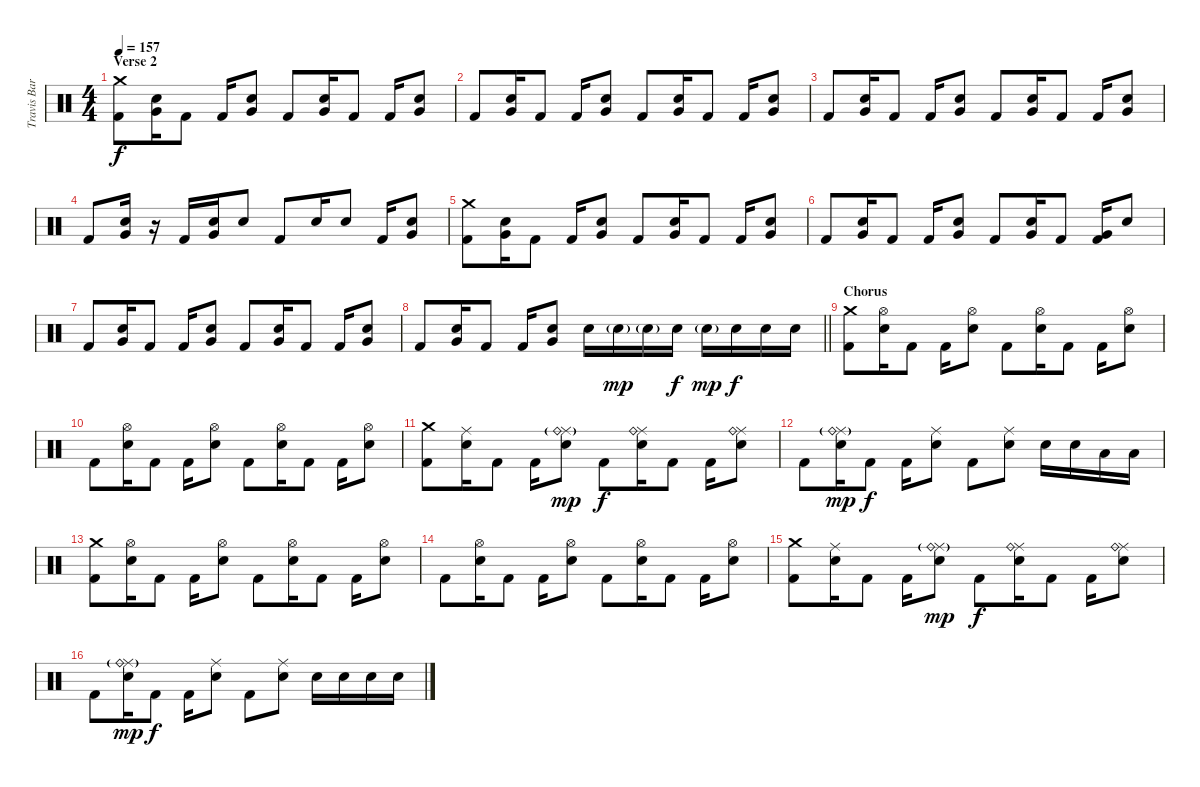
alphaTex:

\track ("Travis Barker - Drums" "Travis Bar") {instrument percussion}
\staff {score}
\articulation defaults
\ts (4 4)
\section ("" "Verse 2")
\tempo 157
\clef neutral
\ks c
("Crash medium (hit)" "Kick (hit) 2").8{dy f} ("Very Low Tom (hit)" "Electric Snare (hit)").16 "Kick (hit) 2".8 "Kick (hit) 2".16 ("Very Low Tom (hit)" "Electric Snare (hit)").8 "Kick (hit) 2".8 ("Very Low Tom (hit)" "Electric Snare (hit)").16 "Kick (hit) 2".8 "Kick (hit) 2".16 ("Very Low Tom (hit)" "Electric Snare (hit)").8 |
"Kick (hit) 2".8 ("Very Low Tom (hit)" "Electric Snare (hit)").16 "Kick (hit) 2".8 "Kick (hit) 2".16 ("Very Low Tom (hit)" "Electric Snare (hit)").8 "Kick (hit) 2".8 ("Very Low Tom (hit)" "Electric Snare (hit)").16 "Kick (hit) 2".8 "Kick (hit) 2".16 ("Very Low Tom (hit)" "Electric Snare (hit)").8 |
"Kick (hit) 2".8 ("Very Low Tom (hit)" "Electric Snare (hit)").16 "Kick (hit) 2".8 "Kick (hit) 2".16 ("Very Low Tom (hit)" "Electric Snare (hit)").8 "Kick (hit) 2".8 ("Very Low Tom (hit)" "Electric Snare (hit)").16 "Kick (hit) 2".8 "Kick (hit) 2".16 ("Very Low Tom (hit)" "Electric Snare (hit)").8 |
"Kick (hit) 2".8 ("Very Low Tom (hit)" "Electric Snare (hit)").16 r.16 "Kick (hit) 2".16 ("Very Low Tom (hit)" "Electric Snare (hit)").16 "Electric Snare (hit)".8 "Kick (hit) 2".8 "Electric Snare (hit)".16 "Electric Snare (hit)".8 "Kick (hit) 2".16 ("Very Low Tom (hit)" "Electric Snare (hit)").8 |
("Crash medium (hit)" "Kick (hit) 2").8 ("Very Low Tom (hit)" "Electric Snare (hit)").16 "Kick (hit) 2".8 "Kick (hit) 2".16 ("Very Low Tom (hit)" "Electric Snare (hit)").8 "Kick (hit) 2".8 ("Very Low Tom (hit)" "Electric Snare (hit)").16 "Kick (hit) 2".8 "Kick (hit) 2".16 ("Very Low Tom (hit)" "Electric Snare (hit)").8 |
"Kick (hit) 2".8 ("Very Low Tom (hit)" "Electric Snare (hit)").16 "Kick (hit) 2".8 "Kick (hit) 2".16 ("Very Low Tom (hit)" "Electric Snare (hit)").8 "Kick (hit) 2".8 ("Very Low Tom (hit)" "Electric Snare (hit)").16 "Kick (hit) 2".8 ("Very Low Tom (hit)" "Kick (hit) 2").16 "Electric Snare (hit)".8 |
"Kick (hit) 2".8 ("Very Low Tom (hit)" "Electric Snare (hit)").16 "Kick (hit) 2".8 "Kick (hit) 2".16 ("Very Low Tom (hit)" "Electric Snare (hit)").8 "Kick (hit) 2".8 ("Very Low Tom (hit)" "Electric Snare (hit)").16 "Kick (hit) 2".8 "Kick (hit) 2".16 ("Very Low Tom (hit)" "Electric Snare (hit)").8 |
\barLineRight lightlight "Kick (hit) 2".8
("Very Low Tom (hit)" "Electric Snare (hit)").16 "Kick (hit) 2".8 "Kick (hit) 2".16 ("Very Low Tom (hit)" "Electric Snare (hit)").8 "Electric Snare (hit)".16 "Electric Snare (hit)"{g}.16{dy mp} "Electric Snare (hit)"{g}.16 "Electric Snare (hit)".16{dy f} "Electric Snare (hit)"{g}.16{dy mp} "Electric Snare (hit)".16{dy f} "Electric Snare (hit)".16 "Electric Snare (hit)".16 |
\section ("" "Chorus")
("Crash medium (hit)" "Kick (hit) 2").8 ("Hi-Hat (open)" "Electric Snare (hit)").16 "Kick (hit) 2".8 "Kick (hit) 2".16 ("Hi-Hat (open)" "Electric Snare (hit)").8 "Kick (hit) 2".8 ("Hi-Hat (open)" "Electric Snare (hit)").16 "Kick (hit) 2".8 "Kick (hit) 2".16 ("Hi-Hat (open)" "Electric Snare (hit)").8 |
"Kick (hit) 2".8 ("Hi-Hat (open)" "Electric Snare (hit)").16 "Kick (hit) 2".8 "Kick (hit) 2".16 ("Hi-Hat (open)" "Electric Snare (hit)").8 "Kick (hit) 2".8 ("Hi-Hat (open)" "Electric Snare (hit)").16 "Kick (hit) 2".8 "Kick (hit) 2".16 ("Hi-Hat (open)" "Electric Snare (hit)").8 |
("Crash medium (hit)" "Kick (hit) 2").8 ("Ride (middle)" "Electric Snare (hit)").16 "Kick (hit) 2".8 "Kick (hit) 2".16 ("Ride (middle)" "Ride (bell)"{g} "Electric Snare (hit)").8{dy mp} "Kick (hit) 2".8{dy f} ("Ride (middle)" "Ride (bell)" "Electric Snare (hit)").16 "Kick (hit) 2".8 "Kick (hit) 2".16 ("Ride (middle)" "Ride (bell)" "Electric Snare (hit)").8 |
"Kick (hit) 2".8 ("Ride (middle)" "Ride (bell)"{g} "Electric Snare (hit)").16{dy mp} "Kick (hit) 2".8{dy f} "Kick (hit) 2".16 ("Ride (middle)" "Electric Snare (hit)").8 "Kick (hit) 2".8 ("Ride (middle)" "Electric Snare (hit)").8 "Electric Snare (hit)".16 "Electric Snare (hit)".16 "Low Tom (hit)".16 "Low Tom (hit)".16 |
("Crash medium (hit)" "Kick (hit) 2").8 ("Hi-Hat (open)" "Electric Snare (hit)").16 "Kick (hit) 2".8 "Kick (hit) 2".16 ("Hi-Hat (open)" "Electric Snare (hit)").8 "Kick (hit) 2".8 ("Hi-Hat (open)" "Electric Snare (hit)").16 "Kick (hit) 2".8 "Kick (hit) 2".16 ("Hi-Hat (open)" "Electric Snare (hit)").8 |
"Kick (hit) 2".8 ("Hi-Hat (open)" "Electric Snare (hit)").16 "Kick (hit) 2".8 "Kick (hit) 2".16 ("Hi-Hat (open)" "Electric Snare (hit)").8 "Kick (hit) 2".8 ("Hi-Hat (open)" "Electric Snare (hit)").16 "Kick (hit) 2".8 "Kick (hit) 2".16 ("Hi-Hat (open)" "Electric Snare (hit)").8 |
("Crash medium (hit)" "Kick (hit) 2").8 ("Ride (middle)" "Electric Snare (hit)").16 "Kick (hit) 2".8 "Kick (hit) 2".16 ("Ride (middle)" "Ride (bell)"{g} "Electric Snare (hit)").8{dy mp} "Kick (hit) 2".8{dy f} ("Ride (middle)" "Ride (bell)" "Electric Snare (hit)").16 "Kick (hit) 2".8 "Kick (hit) 2".16 ("Ride (middle)" "Ride (bell)" "Electric Snare (hit)").8 |
"Kick (hit) 2".8 ("Ride (middle)" "Ride (bell)"{g} "Electric Snare (hit)").16{dy mp} "Kick (hit) 2".8{dy f} "Kick (hit) 2".16 ("Ride (middle)" "Electric Snare (hit)").8 "Kick (hit) 2".8 ("Ride (middle)" "Electric Snare (hit)").8 "Electric Snare (hit)".16 "Electric Snare (hit)".16 "Electric Snare (hit)".16 "Electric Snare (hit)".16
